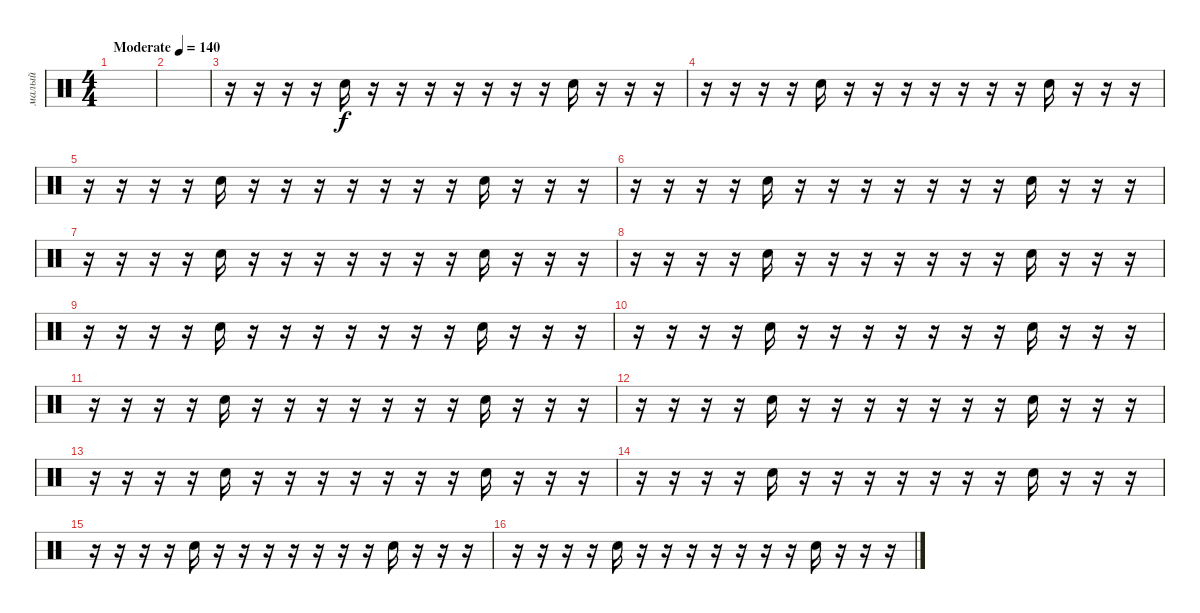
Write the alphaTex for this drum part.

\track ("малый" "малый") {mute instrument percussion}
\staff {score}
\articulation defaults
\ts (4 4)
\tempo (140 "Moderate")
\clef neutral
\ks c
|
|
r.16 r.16 r.16 r.16 "Electric Snare (hit)".16 r.16 r.16 r.16 r.16 r.16 r.16 r.16 "Electric Snare (hit)".16 r.16 r.16 r.16 |
r.16 r.16 r.16 r.16 "Electric Snare (hit)".16 r.16 r.16 r.16 r.16 r.16 r.16 r.16 "Electric Snare (hit)".16 r.16 r.16 r.16 |
r.16 r.16 r.16 r.16 "Electric Snare (hit)".16 r.16 r.16 r.16 r.16 r.16 r.16 r.16 "Electric Snare (hit)".16 r.16 r.16 r.16 |
r.16 r.16 r.16 r.16 "Electric Snare (hit)".16 r.16 r.16 r.16 r.16 r.16 r.16 r.16 "Electric Snare (hit)".16 r.16 r.16 r.16 |
r.16 r.16 r.16 r.16 "Electric Snare (hit)".16 r.16 r.16 r.16 r.16 r.16 r.16 r.16 "Electric Snare (hit)".16 r.16 r.16 r.16 |
r.16 r.16 r.16 r.16 "Electric Snare (hit)".16 r.16 r.16 r.16 r.16 r.16 r.16 r.16 "Electric Snare (hit)".16 r.16 r.16 r.16 |
r.16 r.16 r.16 r.16 "Electric Snare (hit)".16 r.16 r.16 r.16 r.16 r.16 r.16 r.16 "Electric Snare (hit)".16 r.16 r.16 r.16 |
r.16 r.16 r.16 r.16 "Electric Snare (hit)".16 r.16 r.16 r.16 r.16 r.16 r.16 r.16 "Electric Snare (hit)".16 r.16 r.16 r.16 |
r.16 r.16 r.16 r.16 "Electric Snare (hit)".16 r.16 r.16 r.16 r.16 r.16 r.16 r.16 "Electric Snare (hit)".16 r.16 r.16 r.16 |
r.16 r.16 r.16 r.16 "Electric Snare (hit)".16 r.16 r.16 r.16 r.16 r.16 r.16 r.16 "Electric Snare (hit)".16 r.16 r.16 r.16 |
r.16 r.16 r.16 r.16 "Electric Snare (hit)".16 r.16 r.16 r.16 r.16 r.16 r.16 r.16 "Electric Snare (hit)".16 r.16 r.16 r.16 |
r.16 r.16 r.16 r.16 "Electric Snare (hit)".16 r.16 r.16 r.16 r.16 r.16 r.16 r.16 "Electric Snare (hit)".16 r.16 r.16 r.16 |
r.16 r.16 r.16 r.16 "Electric Snare (hit)".16 r.16 r.16 r.16 r.16 r.16 r.16 r.16 "Electric Snare (hit)".16 r.16 r.16 r.16 |
r.16 r.16 r.16 r.16 "Electric Snare (hit)".16 r.16 r.16 r.16 r.16 r.16 r.16 r.16 "Electric Snare (hit)".16 r.16 r.16 r.16
